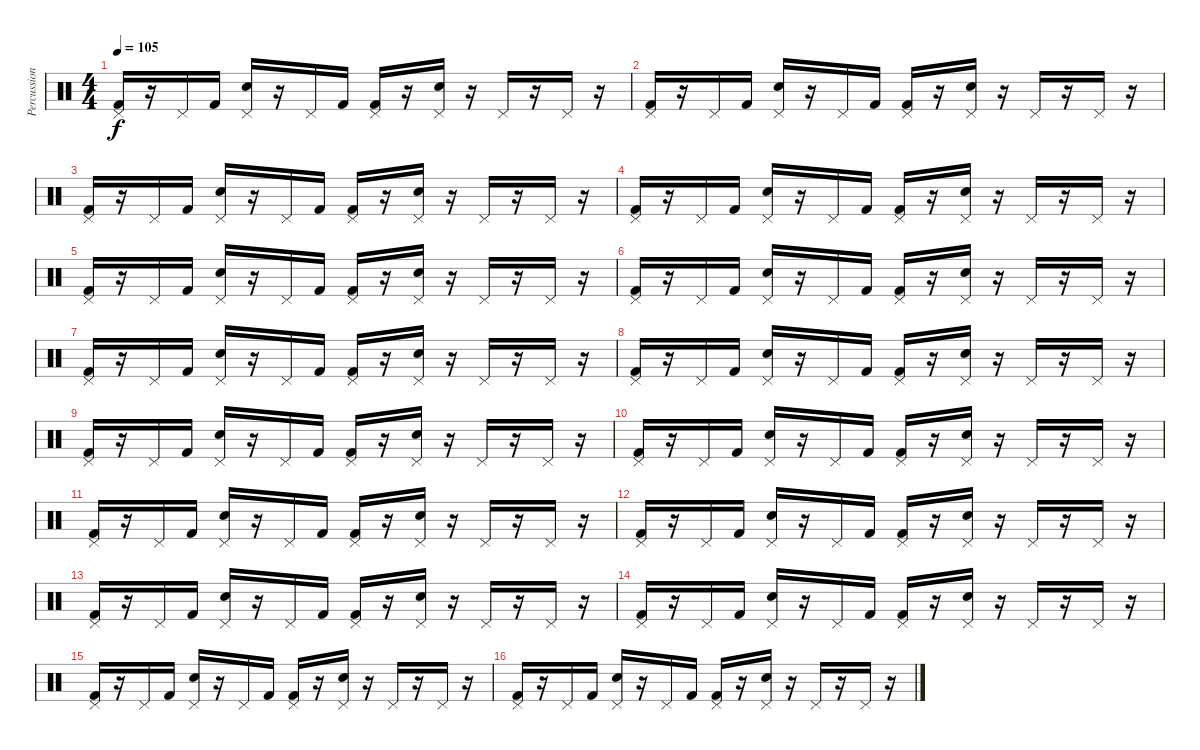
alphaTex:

\track ("Percussion" "Percussion") {instrument percussion}
\staff {score}
\articulation defaults
\ts (4 4)
\tempo 105
\clef neutral
\ks c
("Pedal Hi-Hat (hit)" "Kick (hit) 2").16{dy f} r.16 "Pedal Hi-Hat (hit)".16 "Kick (hit) 2".16 ("Pedal Hi-Hat (hit)" "Electric Snare (hit)").16 r.16 "Pedal Hi-Hat (hit)".16 "Kick (hit) 2".16 ("Pedal Hi-Hat (hit)" "Kick (hit) 2").16 r.16 ("Pedal Hi-Hat (hit)" "Electric Snare (hit)").16 r.16 "Pedal Hi-Hat (hit)".16 r.16 "Pedal Hi-Hat (hit)".16 r.16 |
("Pedal Hi-Hat (hit)" "Kick (hit) 2").16 r.16 "Pedal Hi-Hat (hit)".16 "Kick (hit) 2".16 ("Pedal Hi-Hat (hit)" "Electric Snare (hit)").16 r.16 "Pedal Hi-Hat (hit)".16 "Kick (hit) 2".16 ("Pedal Hi-Hat (hit)" "Kick (hit) 2").16 r.16 ("Pedal Hi-Hat (hit)" "Electric Snare (hit)").16 r.16 "Pedal Hi-Hat (hit)".16 r.16 "Pedal Hi-Hat (hit)".16 r.16 |
("Pedal Hi-Hat (hit)" "Kick (hit) 2").16 r.16 "Pedal Hi-Hat (hit)".16 "Kick (hit) 2".16 ("Pedal Hi-Hat (hit)" "Electric Snare (hit)").16 r.16 "Pedal Hi-Hat (hit)".16 "Kick (hit) 2".16 ("Pedal Hi-Hat (hit)" "Kick (hit) 2").16 r.16 ("Pedal Hi-Hat (hit)" "Electric Snare (hit)").16 r.16 "Pedal Hi-Hat (hit)".16 r.16 "Pedal Hi-Hat (hit)".16 r.16 |
("Pedal Hi-Hat (hit)" "Kick (hit) 2").16 r.16 "Pedal Hi-Hat (hit)".16 "Kick (hit) 2".16 ("Pedal Hi-Hat (hit)" "Electric Snare (hit)").16 r.16 "Pedal Hi-Hat (hit)".16 "Kick (hit) 2".16 ("Pedal Hi-Hat (hit)" "Kick (hit) 2").16 r.16 ("Pedal Hi-Hat (hit)" "Electric Snare (hit)").16 r.16 "Pedal Hi-Hat (hit)".16 r.16 "Pedal Hi-Hat (hit)".16 r.16 |
("Pedal Hi-Hat (hit)" "Kick (hit) 2").16 r.16 "Pedal Hi-Hat (hit)".16 "Kick (hit) 2".16 ("Pedal Hi-Hat (hit)" "Electric Snare (hit)").16 r.16 "Pedal Hi-Hat (hit)".16 "Kick (hit) 2".16 ("Pedal Hi-Hat (hit)" "Kick (hit) 2").16 r.16 ("Pedal Hi-Hat (hit)" "Electric Snare (hit)").16 r.16 "Pedal Hi-Hat (hit)".16 r.16 "Pedal Hi-Hat (hit)".16 r.16 |
("Pedal Hi-Hat (hit)" "Kick (hit) 2").16{volume 16} r.16 "Pedal Hi-Hat (hit)".16 "Kick (hit) 2".16 ("Pedal Hi-Hat (hit)" "Electric Snare (hit)").16 r.16 "Pedal Hi-Hat (hit)".16 "Kick (hit) 2".16 ("Pedal Hi-Hat (hit)" "Kick (hit) 2").16 r.16 ("Pedal Hi-Hat (hit)" "Electric Snare (hit)").16 r.16 "Pedal Hi-Hat (hit)".16 r.16 "Pedal Hi-Hat (hit)".16 r.16 |
("Pedal Hi-Hat (hit)" "Kick (hit) 2").16 r.16 "Pedal Hi-Hat (hit)".16 "Kick (hit) 2".16 ("Pedal Hi-Hat (hit)" "Electric Snare (hit)").16 r.16 "Pedal Hi-Hat (hit)".16 "Kick (hit) 2".16 ("Pedal Hi-Hat (hit)" "Kick (hit) 2").16 r.16 ("Pedal Hi-Hat (hit)" "Electric Snare (hit)").16 r.16 "Pedal Hi-Hat (hit)".16 r.16 "Pedal Hi-Hat (hit)".16 r.16 |
("Pedal Hi-Hat (hit)" "Kick (hit) 2").16 r.16 "Pedal Hi-Hat (hit)".16 "Kick (hit) 2".16 ("Pedal Hi-Hat (hit)" "Electric Snare (hit)").16 r.16 "Pedal Hi-Hat (hit)".16 "Kick (hit) 2".16 ("Pedal Hi-Hat (hit)" "Kick (hit) 2").16 r.16 ("Pedal Hi-Hat (hit)" "Electric Snare (hit)").16 r.16 "Pedal Hi-Hat (hit)".16 r.16 "Pedal Hi-Hat (hit)".16 r.16 |
("Pedal Hi-Hat (hit)" "Kick (hit) 2").16 r.16 "Pedal Hi-Hat (hit)".16 "Kick (hit) 2".16 ("Pedal Hi-Hat (hit)" "Electric Snare (hit)").16 r.16 "Pedal Hi-Hat (hit)".16 "Kick (hit) 2".16 ("Pedal Hi-Hat (hit)" "Kick (hit) 2").16 r.16 ("Pedal Hi-Hat (hit)" "Electric Snare (hit)").16 r.16 "Pedal Hi-Hat (hit)".16 r.16 "Pedal Hi-Hat (hit)".16 r.16 |
("Pedal Hi-Hat (hit)" "Kick (hit) 2").16 r.16 "Pedal Hi-Hat (hit)".16 "Kick (hit) 2".16 ("Pedal Hi-Hat (hit)" "Electric Snare (hit)").16 r.16 "Pedal Hi-Hat (hit)".16 "Kick (hit) 2".16 ("Pedal Hi-Hat (hit)" "Kick (hit) 2").16 r.16 ("Pedal Hi-Hat (hit)" "Electric Snare (hit)").16 r.16 "Pedal Hi-Hat (hit)".16 r.16 "Pedal Hi-Hat (hit)".16 r.16 |
("Pedal Hi-Hat (hit)" "Kick (hit) 2").16 r.16 "Pedal Hi-Hat (hit)".16 "Kick (hit) 2".16 ("Pedal Hi-Hat (hit)" "Electric Snare (hit)").16 r.16 "Pedal Hi-Hat (hit)".16 "Kick (hit) 2".16 ("Pedal Hi-Hat (hit)" "Kick (hit) 2").16 r.16 ("Pedal Hi-Hat (hit)" "Electric Snare (hit)").16 r.16 "Pedal Hi-Hat (hit)".16 r.16 "Pedal Hi-Hat (hit)".16 r.16 |
("Pedal Hi-Hat (hit)" "Kick (hit) 2").16 r.16 "Pedal Hi-Hat (hit)".16 "Kick (hit) 2".16 ("Pedal Hi-Hat (hit)" "Electric Snare (hit)").16 r.16 "Pedal Hi-Hat (hit)".16 "Kick (hit) 2".16 ("Pedal Hi-Hat (hit)" "Kick (hit) 2").16 r.16 ("Pedal Hi-Hat (hit)" "Electric Snare (hit)").16 r.16 "Pedal Hi-Hat (hit)".16 r.16 "Pedal Hi-Hat (hit)".16 r.16 |
("Pedal Hi-Hat (hit)" "Kick (hit) 2").16 r.16 "Pedal Hi-Hat (hit)".16 "Kick (hit) 2".16 ("Pedal Hi-Hat (hit)" "Electric Snare (hit)").16 r.16 "Pedal Hi-Hat (hit)".16 "Kick (hit) 2".16 ("Pedal Hi-Hat (hit)" "Kick (hit) 2").16 r.16 ("Pedal Hi-Hat (hit)" "Electric Snare (hit)").16 r.16 "Pedal Hi-Hat (hit)".16 r.16 "Pedal Hi-Hat (hit)".16 r.16 |
("Pedal Hi-Hat (hit)" "Kick (hit) 2").16 r.16 "Pedal Hi-Hat (hit)".16 "Kick (hit) 2".16 ("Pedal Hi-Hat (hit)" "Electric Snare (hit)").16 r.16 "Pedal Hi-Hat (hit)".16 "Kick (hit) 2".16 ("Pedal Hi-Hat (hit)" "Kick (hit) 2").16 r.16 ("Pedal Hi-Hat (hit)" "Electric Snare (hit)").16 r.16 "Pedal Hi-Hat (hit)".16 r.16 "Pedal Hi-Hat (hit)".16 r.16 |
("Pedal Hi-Hat (hit)" "Kick (hit) 2").16 r.16 "Pedal Hi-Hat (hit)".16 "Kick (hit) 2".16 ("Pedal Hi-Hat (hit)" "Electric Snare (hit)").16 r.16 "Pedal Hi-Hat (hit)".16 "Kick (hit) 2".16 ("Pedal Hi-Hat (hit)" "Kick (hit) 2").16 r.16 ("Pedal Hi-Hat (hit)" "Electric Snare (hit)").16 r.16 "Pedal Hi-Hat (hit)".16 r.16 "Pedal Hi-Hat (hit)".16 r.16 |
("Pedal Hi-Hat (hit)" "Kick (hit) 2").16 r.16 "Pedal Hi-Hat (hit)".16 "Kick (hit) 2".16 ("Pedal Hi-Hat (hit)" "Electric Snare (hit)").16 r.16 "Pedal Hi-Hat (hit)".16 "Kick (hit) 2".16 ("Pedal Hi-Hat (hit)" "Kick (hit) 2").16 r.16 ("Pedal Hi-Hat (hit)" "Electric Snare (hit)").16 r.16 "Pedal Hi-Hat (hit)".16 r.16 "Pedal Hi-Hat (hit)".16 r.16
